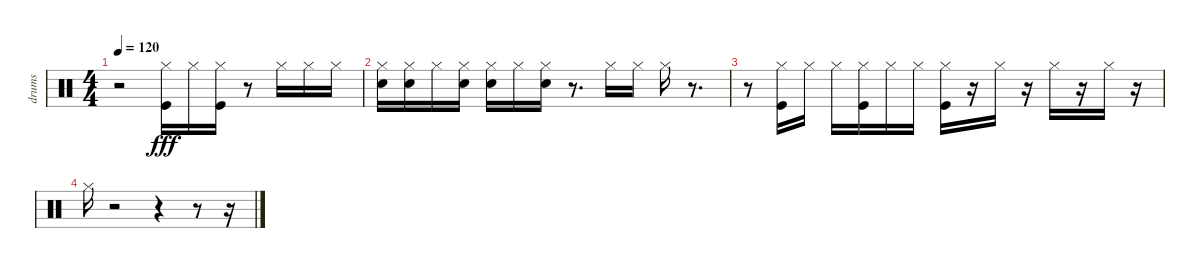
\track ("drums" "drums") {instrument percussion}
\staff {score}
\articulation defaults
\ts (4 4)
\tempo 120
\clef neutral
\ks c
r.2{dy fff} ("Hi-Hat (closed)" "Kick (hit)").16 "Hi-Hat (closed)".16 ("Hi-Hat (closed)" "Kick (hit)").16 r.8 "Hi-Hat (closed)".16 "Hi-Hat (closed)".16 "Hi-Hat (closed)".16 |
("Hi-Hat (closed)" "Snare (hit) 2").16 ("Hi-Hat (closed)" "Snare (hit) 2").16 "Hi-Hat (closed)".16 ("Hi-Hat (closed)" "Snare (hit) 2").16 ("Hi-Hat (closed)" "Snare (hit) 2").16 "Hi-Hat (closed)".16 ("Hi-Hat (closed)" "Snare (hit) 2").16 r.8{d} "Hi-Hat (closed)".16 "Hi-Hat (closed)".16 "Hi-Hat (closed)".16 r.8{d} |
r.8 ("Hi-Hat (closed)" "Kick (hit)").16 "Hi-Hat (closed)".16 "Hi-Hat (closed)".16 ("Hi-Hat (closed)" "Kick (hit)").16 "Hi-Hat (closed)".16 "Hi-Hat (closed)".16 ("Hi-Hat (closed)" "Kick (hit)").16 r.16 "Hi-Hat (closed)".16 r.16 "Hi-Hat (closed)".16 r.16 "Hi-Hat (closed)".16 r.16 |
"Hi-Hat (closed)".16 r.2 r.4 r.8 r.16
